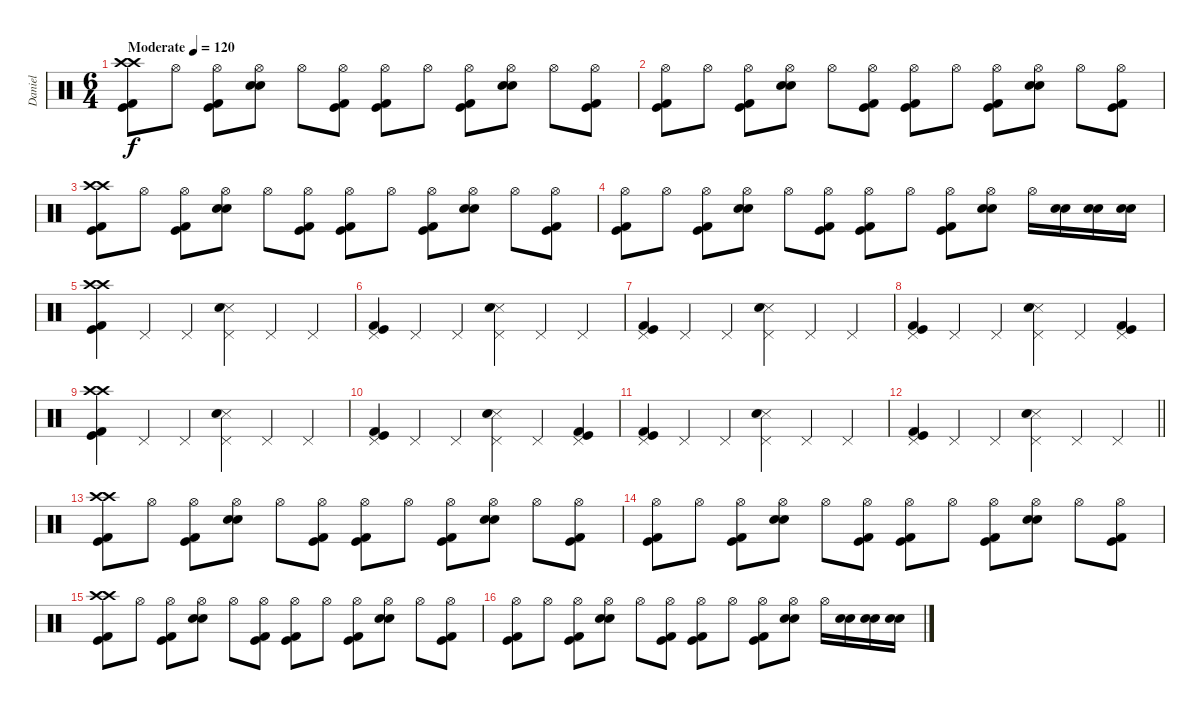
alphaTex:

\track ("Daniel" "Daniel") {instrument percussion}
\staff {score}
\articulation defaults
\ts (6 4)
\tempo (120 "Moderate")
\clef neutral
\ks c
("Crash high (hit)" "Crash high (hit)" "Kick (hit) 2" "Kick (hit)").8{dy f} "Hi-Hat (open)".8 ("Hi-Hat (open)" "Kick (hit) 2" "Kick (hit)").8 ("Hi-Hat (open)" "Snare (hit) 2" "Electric Snare (hit)").8 "Hi-Hat (open)".8 ("Hi-Hat (open)" "Kick (hit) 2" "Kick (hit)").8 ("Hi-Hat (open)" "Kick (hit) 2" "Kick (hit)").8 "Hi-Hat (open)".8 ("Hi-Hat (open)" "Kick (hit) 2" "Kick (hit)").8 ("Hi-Hat (open)" "Snare (hit) 2" "Electric Snare (hit)").8 "Hi-Hat (open)".8 ("Hi-Hat (open)" "Kick (hit) 2" "Kick (hit)").8 |
("Hi-Hat (open)" "Kick (hit) 2" "Kick (hit)").8 "Hi-Hat (open)".8 ("Hi-Hat (open)" "Kick (hit) 2" "Kick (hit)").8 ("Hi-Hat (open)" "Snare (hit) 2" "Electric Snare (hit)").8 "Hi-Hat (open)".8 ("Hi-Hat (open)" "Kick (hit) 2" "Kick (hit)").8 ("Hi-Hat (open)" "Kick (hit) 2" "Kick (hit)").8 "Hi-Hat (open)".8 ("Hi-Hat (open)" "Kick (hit) 2" "Kick (hit)").8 ("Hi-Hat (open)" "Snare (hit) 2" "Electric Snare (hit)").8 "Hi-Hat (open)".8 ("Hi-Hat (open)" "Kick (hit) 2" "Kick (hit)").8 |
("Crash high (hit)" "Crash high (hit)" "Kick (hit) 2" "Kick (hit)").8 "Hi-Hat (open)".8 ("Hi-Hat (open)" "Kick (hit) 2" "Kick (hit)").8 ("Hi-Hat (open)" "Snare (hit) 2" "Electric Snare (hit)").8 "Hi-Hat (open)".8 ("Hi-Hat (open)" "Kick (hit) 2" "Kick (hit)").8 ("Hi-Hat (open)" "Kick (hit) 2" "Kick (hit)").8 "Hi-Hat (open)".8 ("Hi-Hat (open)" "Kick (hit) 2" "Kick (hit)").8 ("Hi-Hat (open)" "Snare (hit) 2" "Electric Snare (hit)").8 "Hi-Hat (open)".8 ("Hi-Hat (open)" "Kick (hit) 2" "Kick (hit)").8 |
("Hi-Hat (open)" "Kick (hit) 2" "Kick (hit)").8 "Hi-Hat (open)".8 ("Hi-Hat (open)" "Kick (hit) 2" "Kick (hit)").8 ("Hi-Hat (open)" "Snare (hit) 2" "Electric Snare (hit)").8 "Hi-Hat (open)".8 ("Hi-Hat (open)" "Kick (hit) 2" "Kick (hit)").8 ("Hi-Hat (open)" "Kick (hit) 2" "Kick (hit)").8 "Hi-Hat (open)".8 ("Hi-Hat (open)" "Kick (hit) 2" "Kick (hit)").8 ("Hi-Hat (open)" "Snare (hit) 2" "Electric Snare (hit)").8 "Hi-Hat (open)".16 ("Snare (hit) 2" "Electric Snare (hit)").16 ("Snare (hit) 2" "Electric Snare (hit)").16 ("Snare (hit) 2" "Electric Snare (hit)").16 |
("Crash high (hit)" "Crash high (hit)" "Kick (hit) 2" "Kick (hit)").4 "Pedal Hi-Hat (hit)".4 "Pedal Hi-Hat (hit)".4 ("Pedal Hi-Hat (hit)" "Snare (side stick) 3" "Electric Snare (hit)").4 "Pedal Hi-Hat (hit)".4 "Pedal Hi-Hat (hit)".4 |
("Pedal Hi-Hat (hit)" "Kick (hit) 2" "Kick (hit)").4 "Pedal Hi-Hat (hit)".4 "Pedal Hi-Hat (hit)".4 ("Pedal Hi-Hat (hit)" "Snare (side stick) 3" "Electric Snare (hit)").4 "Pedal Hi-Hat (hit)".4 "Pedal Hi-Hat (hit)".4 |
("Pedal Hi-Hat (hit)" "Kick (hit) 2" "Kick (hit)").4 "Pedal Hi-Hat (hit)".4 "Pedal Hi-Hat (hit)".4 ("Pedal Hi-Hat (hit)" "Snare (side stick) 3" "Electric Snare (hit)").4 "Pedal Hi-Hat (hit)".4 "Pedal Hi-Hat (hit)".4 |
("Pedal Hi-Hat (hit)" "Kick (hit) 2" "Kick (hit)").4 "Pedal Hi-Hat (hit)".4 "Pedal Hi-Hat (hit)".4 ("Pedal Hi-Hat (hit)" "Snare (side stick) 3" "Electric Snare (hit)").4 "Pedal Hi-Hat (hit)".4 ("Pedal Hi-Hat (hit)" "Kick (hit) 2" "Kick (hit)").4 |
("Crash high (hit)" "Crash high (hit)" "Kick (hit) 2" "Kick (hit)").4 "Pedal Hi-Hat (hit)".4 "Pedal Hi-Hat (hit)".4 ("Pedal Hi-Hat (hit)" "Snare (side stick) 3" "Electric Snare (hit)").4 "Pedal Hi-Hat (hit)".4 "Pedal Hi-Hat (hit)".4 |
("Pedal Hi-Hat (hit)" "Kick (hit) 2" "Kick (hit)").4 "Pedal Hi-Hat (hit)".4 "Pedal Hi-Hat (hit)".4 ("Pedal Hi-Hat (hit)" "Snare (side stick) 3" "Electric Snare (hit)").4 "Pedal Hi-Hat (hit)".4 ("Pedal Hi-Hat (hit)" "Kick (hit) 2" "Kick (hit)").4 |
("Pedal Hi-Hat (hit)" "Kick (hit) 2" "Kick (hit)").4 "Pedal Hi-Hat (hit)".4 "Pedal Hi-Hat (hit)".4 ("Pedal Hi-Hat (hit)" "Snare (side stick) 3" "Electric Snare (hit)").4 "Pedal Hi-Hat (hit)".4 "Pedal Hi-Hat (hit)".4 |
\barLineRight lightlight
("Pedal Hi-Hat (hit)" "Kick (hit) 2" "Kick (hit)").4 "Pedal Hi-Hat (hit)".4 "Pedal Hi-Hat (hit)".4 ("Pedal Hi-Hat (hit)" "Snare (side stick) 3" "Electric Snare (hit)").4 "Pedal Hi-Hat (hit)".4 "Pedal Hi-Hat (hit)".4 |
("Crash high (hit)" "Crash high (hit)" "Kick (hit) 2" "Kick (hit)").8 "Hi-Hat (open)".8 ("Hi-Hat (open)" "Kick (hit) 2" "Kick (hit)").8 ("Hi-Hat (open)" "Snare (hit) 2" "Electric Snare (hit)").8 "Hi-Hat (open)".8 ("Hi-Hat (open)" "Kick (hit) 2" "Kick (hit)").8 ("Hi-Hat (open)" "Kick (hit) 2" "Kick (hit)").8 "Hi-Hat (open)".8 ("Hi-Hat (open)" "Kick (hit) 2" "Kick (hit)").8 ("Hi-Hat (open)" "Snare (hit) 2" "Electric Snare (hit)").8 "Hi-Hat (open)".8 ("Hi-Hat (open)" "Kick (hit) 2" "Kick (hit)").8 |
("Hi-Hat (open)" "Kick (hit) 2" "Kick (hit)").8 "Hi-Hat (open)".8 ("Hi-Hat (open)" "Kick (hit) 2" "Kick (hit)").8 ("Hi-Hat (open)" "Snare (hit) 2" "Electric Snare (hit)").8 "Hi-Hat (open)".8 ("Hi-Hat (open)" "Kick (hit) 2" "Kick (hit)").8 ("Hi-Hat (open)" "Kick (hit) 2" "Kick (hit)").8 "Hi-Hat (open)".8 ("Hi-Hat (open)" "Kick (hit) 2" "Kick (hit)").8 ("Hi-Hat (open)" "Snare (hit) 2" "Electric Snare (hit)").8 "Hi-Hat (open)".8 ("Hi-Hat (open)" "Kick (hit) 2" "Kick (hit)").8 |
("Crash high (hit)" "Crash high (hit)" "Kick (hit) 2" "Kick (hit)").8 "Hi-Hat (open)".8 ("Hi-Hat (open)" "Kick (hit) 2" "Kick (hit)").8 ("Hi-Hat (open)" "Snare (hit) 2" "Electric Snare (hit)").8 "Hi-Hat (open)".8 ("Hi-Hat (open)" "Kick (hit) 2" "Kick (hit)").8 ("Hi-Hat (open)" "Kick (hit) 2" "Kick (hit)").8 "Hi-Hat (open)".8 ("Hi-Hat (open)" "Kick (hit) 2" "Kick (hit)").8 ("Hi-Hat (open)" "Snare (hit) 2" "Electric Snare (hit)").8 "Hi-Hat (open)".8 ("Hi-Hat (open)" "Kick (hit) 2" "Kick (hit)").8 |
("Hi-Hat (open)" "Kick (hit) 2" "Kick (hit)").8 "Hi-Hat (open)".8 ("Hi-Hat (open)" "Kick (hit) 2" "Kick (hit)").8 ("Hi-Hat (open)" "Snare (hit) 2" "Electric Snare (hit)").8 "Hi-Hat (open)".8 ("Hi-Hat (open)" "Kick (hit) 2" "Kick (hit)").8 ("Hi-Hat (open)" "Kick (hit) 2" "Kick (hit)").8 "Hi-Hat (open)".8 ("Hi-Hat (open)" "Kick (hit) 2" "Kick (hit)").8 ("Hi-Hat (open)" "Snare (hit) 2" "Electric Snare (hit)").8 "Hi-Hat (open)".16 ("Snare (hit) 2" "Electric Snare (hit)").16 ("Snare (hit) 2" "Electric Snare (hit)").16 ("Snare (hit) 2" "Electric Snare (hit)").16
